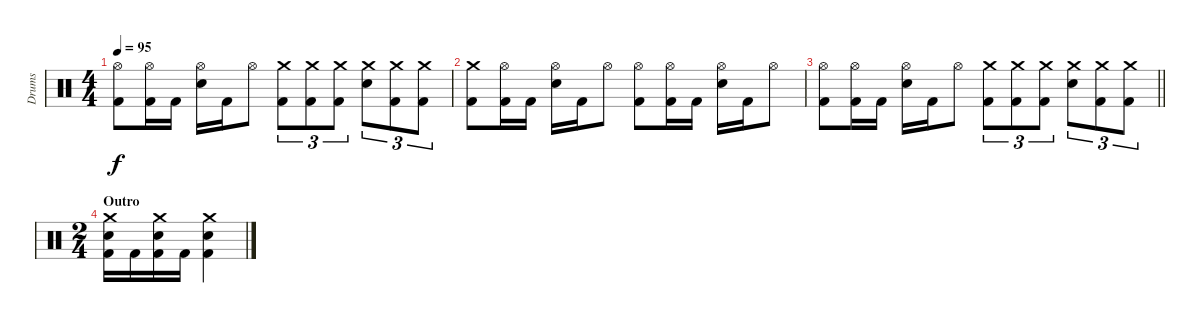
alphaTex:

\track ("Drums" "Drums") {instrument percussion}
\staff {score}
\articulation defaults
\ts (4 4)
\tempo 95
\clef neutral
\ks c
("Hi-Hat (open)" "Kick (hit) 2").8{dy f} ("Hi-Hat (open)" "Kick (hit) 2").16 "Kick (hit) 2".16 ("Hi-Hat (open)" "Electric Snare (hit)").16 "Kick (hit) 2".16 "Hi-Hat (open)".8 ("Crash medium (hit)" "Kick (hit) 2").8{tu (3 2)} ("Crash medium (hit)" "Kick (hit) 2").8{tu (3 2)} ("Crash medium (hit)" "Kick (hit) 2").8{tu (3 2)} ("Crash medium (hit)" "Electric Snare (hit)").8{tu (3 2)} ("Crash medium (hit)" "Kick (hit) 2").8{tu (3 2)} ("Crash medium (hit)" "Kick (hit) 2").8{tu (3 2)} |
("Crash medium (hit)" "Kick (hit) 2").8 ("Hi-Hat (open)" "Kick (hit) 2").16 "Kick (hit) 2".16 ("Hi-Hat (open)" "Electric Snare (hit)").16 "Kick (hit) 2".16 "Hi-Hat (open)".8 ("Hi-Hat (open)" "Kick (hit) 2").8 ("Hi-Hat (open)" "Kick (hit) 2").16 "Kick (hit) 2".16 ("Hi-Hat (open)" "Electric Snare (hit)").16 "Kick (hit) 2".16 "Hi-Hat (open)".8 |
\barLineRight lightlight
("Hi-Hat (open)" "Kick (hit) 2").8 ("Hi-Hat (open)" "Kick (hit) 2").16 "Kick (hit) 2".16 ("Hi-Hat (open)" "Electric Snare (hit)").16 "Kick (hit) 2".16 "Hi-Hat (open)".8 ("Crash medium (hit)" "Kick (hit) 2").8{tu (3 2)} ("Crash medium (hit)" "Kick (hit) 2").8{tu (3 2)} ("Crash medium (hit)" "Kick (hit) 2").8{tu (3 2)} ("Crash medium (hit)" "Electric Snare (hit)").8{tu (3 2)} ("Crash medium (hit)" "Kick (hit) 2").8{tu (3 2)} ("Crash medium (hit)" "Kick (hit) 2").8{tu (3 2)} |
\ts (2 4)
\section ("" "Outro")
("Crash medium (hit)" "Electric Snare (hit)" "Kick (hit) 2").16 "Kick (hit) 2".16 ("Crash medium (hit)" "Electric Snare (hit)" "Kick (hit) 2").16 "Kick (hit) 2".16 ("Crash medium (hit)" "Electric Snare (hit)" "Kick (hit) 2").4
